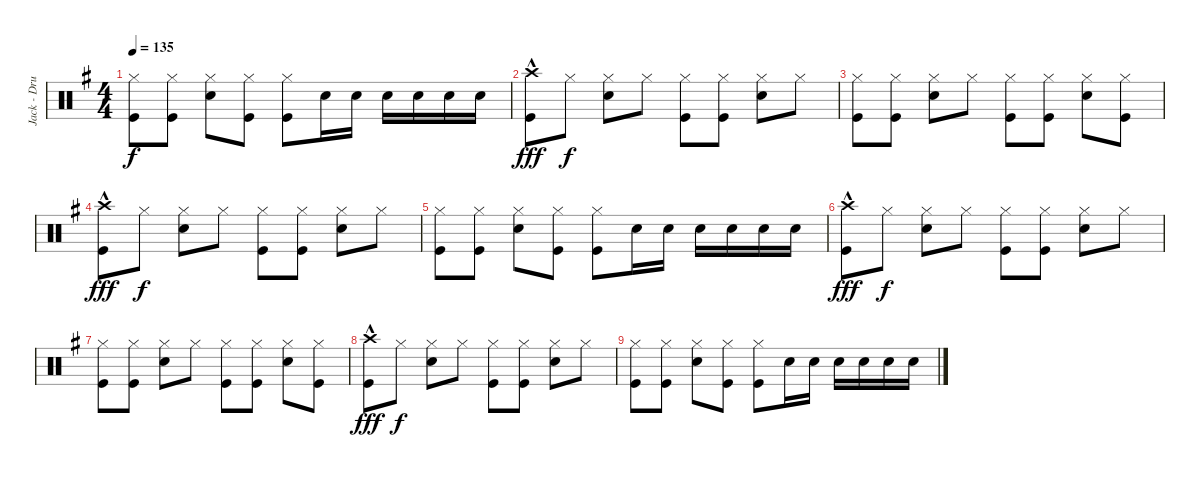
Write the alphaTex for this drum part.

\track ("Jack - Drums" "Jack - Dru") {instrument percussion}
\staff {score}
\articulation defaults
\ts (4 4)
\tempo 135
\clef neutral
\ks g
("Hi-Hat (closed)" "Kick (hit)").8{dy f} ("Hi-Hat (closed)" "Kick (hit)").8 ("Hi-Hat (closed)" "Snare (hit) 2").8 ("Hi-Hat (closed)" "Kick (hit)").8 ("Hi-Hat (closed)" "Kick (hit)").8 "Snare (hit) 2".16 "Snare (hit) 2".16 "Snare (hit) 2".16 "Snare (hit) 2".16 "Snare (hit) 2".16 "Snare (hit) 2".16 |
("Crash high (hit)"{hac} "Kick (hit)").8{dy fff volume 5} "Hi-Hat (closed)".8{dy f} ("Hi-Hat (closed)" "Snare (hit) 2").8 "Hi-Hat (closed)".8 ("Hi-Hat (closed)" "Kick (hit)").8 ("Hi-Hat (closed)" "Kick (hit)").8 ("Hi-Hat (closed)" "Snare (hit) 2").8 "Hi-Hat (closed)".8 |
("Hi-Hat (closed)" "Kick (hit)").8 ("Hi-Hat (closed)" "Kick (hit)").8 ("Hi-Hat (closed)" "Snare (hit) 2").8 "Hi-Hat (closed)".8 ("Hi-Hat (closed)" "Kick (hit)").8 ("Hi-Hat (closed)" "Kick (hit)").8 ("Hi-Hat (closed)" "Snare (hit) 2").8 ("Hi-Hat (closed)" "Kick (hit)").8 |
("Crash high (hit)"{hac} "Kick (hit)").8{dy fff} "Hi-Hat (closed)".8{dy f} ("Hi-Hat (closed)" "Snare (hit) 2").8 "Hi-Hat (closed)".8 ("Hi-Hat (closed)" "Kick (hit)").8 ("Hi-Hat (closed)" "Kick (hit)").8 ("Hi-Hat (closed)" "Snare (hit) 2").8 "Hi-Hat (closed)".8 |
("Hi-Hat (closed)" "Kick (hit)").8 ("Hi-Hat (closed)" "Kick (hit)").8 ("Hi-Hat (closed)" "Snare (hit) 2").8 ("Hi-Hat (closed)" "Kick (hit)").8 ("Hi-Hat (closed)" "Kick (hit)").8 "Snare (hit) 2".16 "Snare (hit) 2".16 "Snare (hit) 2".16 "Snare (hit) 2".16 "Snare (hit) 2".16 "Snare (hit) 2".16 |
("Crash high (hit)"{hac} "Kick (hit)").8{dy fff volume 0} "Hi-Hat (closed)".8{dy f} ("Hi-Hat (closed)" "Snare (hit) 2").8 "Hi-Hat (closed)".8 ("Hi-Hat (closed)" "Kick (hit)").8 ("Hi-Hat (closed)" "Kick (hit)").8 ("Hi-Hat (closed)" "Snare (hit) 2").8 "Hi-Hat (closed)".8 |
("Hi-Hat (closed)" "Kick (hit)").8 ("Hi-Hat (closed)" "Kick (hit)").8 ("Hi-Hat (closed)" "Snare (hit) 2").8 "Hi-Hat (closed)".8 ("Hi-Hat (closed)" "Kick (hit)").8 ("Hi-Hat (closed)" "Kick (hit)").8 ("Hi-Hat (closed)" "Snare (hit) 2").8 ("Hi-Hat (closed)" "Kick (hit)").8 |
("Crash high (hit)"{hac} "Kick (hit)").8{dy fff} "Hi-Hat (closed)".8{dy f} ("Hi-Hat (closed)" "Snare (hit) 2").8 "Hi-Hat (closed)".8 ("Hi-Hat (closed)" "Kick (hit)").8 ("Hi-Hat (closed)" "Kick (hit)").8 ("Hi-Hat (closed)" "Snare (hit) 2").8 "Hi-Hat (closed)".8 |
("Hi-Hat (closed)" "Kick (hit)").8 ("Hi-Hat (closed)" "Kick (hit)").8 ("Hi-Hat (closed)" "Snare (hit) 2").8 ("Hi-Hat (closed)" "Kick (hit)").8 ("Hi-Hat (closed)" "Kick (hit)").8 "Snare (hit) 2".16 "Snare (hit) 2".16 "Snare (hit) 2".16 "Snare (hit) 2".16 "Snare (hit) 2".16 "Snare (hit) 2".16
